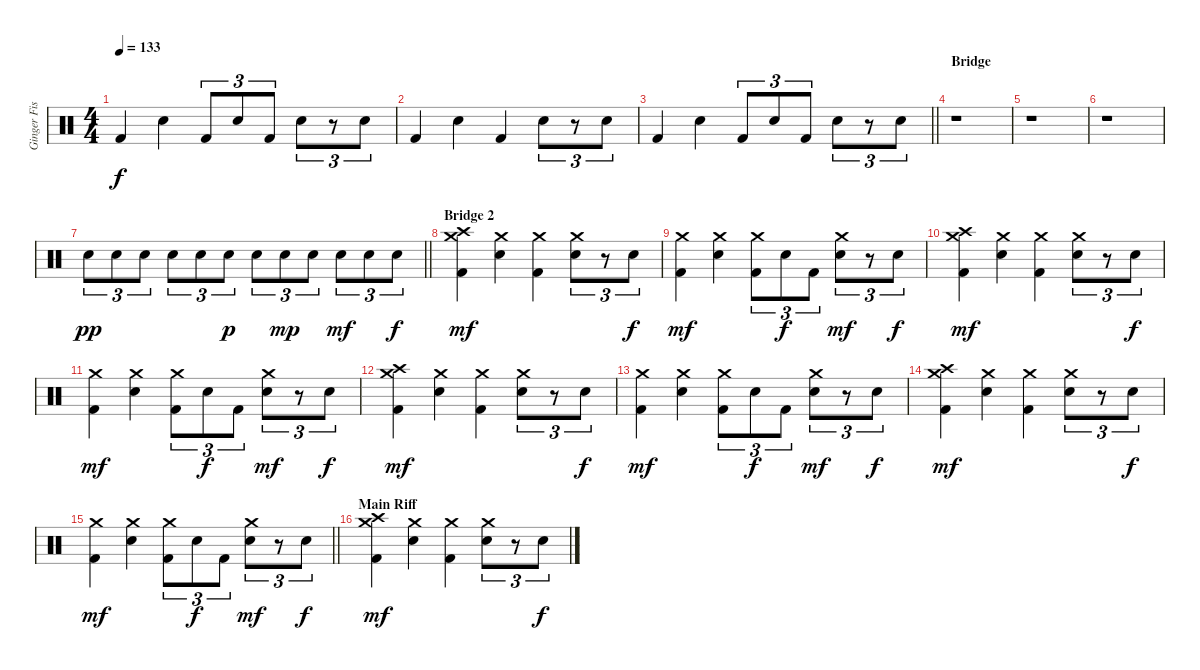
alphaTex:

\track ("Ginger Fish (Drums)" "Ginger Fis") {instrument percussion}
\staff {score}
\articulation defaults
\ts (4 4)
\tempo 133
\clef neutral
\ks c "Kick (hit) 2".4{dy f} "Snare (hit) 2".4 "Kick (hit) 2".8{tu (3 2)} "Snare (hit) 2".8{tu (3 2)} "Kick (hit) 2".8{tu (3 2)} "Snare (hit) 2".8{tu (3 2)}
r.8{tu (3 2)} "Snare (hit) 2".8{tu (3 2)} |
"Kick (hit) 2".4 "Snare (hit) 2".4 "Kick (hit) 2".4 "Snare (hit) 2".8{tu (3 2)} r.8{tu (3 2)} "Snare (hit) 2".8{tu (3 2)} |
\barLineRight lightlight "Kick (hit) 2".4 "Snare (hit) 2".4 "Kick (hit) 2".8{tu (3 2)} "Snare (hit) 2".8{tu (3 2)} "Kick (hit) 2".8{tu (3 2)} "Snare (hit) 2".8{tu (3 2)}
r.8{tu (3 2)} "Snare (hit) 2".8{tu (3 2)} |
\section ("" "Bridge ")
r.1 |
r.1 |
r.1 |
\barLineRight lightlight "Snare (hit) 2".8{tu (3 2) dy pp} "Snare (hit) 2".8{tu (3 2)} "Snare (hit) 2".8{tu (3 2)} "Snare (hit) 2".8{tu (3 2)} "Snare (hit) 2".8{tu (3 2)} "Snare (hit) 2".8{tu (3 2) dy p} "Snare (hit) 2".8{tu (3 2)} "Snare (hit) 2".8{tu (3 2) dy mp} "Snare (hit) 2".8{tu (3 2)} "Snare (hit) 2".8{tu (3 2) dy mf} "Snare (hit) 2".8{tu (3 2)} "Snare (hit) 2".8{tu (3 2) dy f}
|
\section ("" "Bridge 2")
("Crash high (hit)" "Crash medium (hit)" "Kick (hit) 2").4{dy mf} ("Crash medium (hit)" "Snare (hit) 2").4 ("Crash medium (hit)" "Kick (hit) 2").4 ("Crash medium (hit)" "Snare (hit) 2").8{tu (3 2)} r.8{tu (3 2)} "Snare (hit) 2".8{tu (3 2) dy f} |
("Crash medium (hit)" "Kick (hit) 2").4{dy mf} ("Crash medium (hit)" "Snare (hit) 2").4 ("Crash medium (hit)" "Kick (hit) 2").8{tu (3 2)} "Snare (hit) 2".8{tu (3 2) dy f} "Kick (hit) 2".8{tu (3 2)} ("Crash medium (hit)" "Snare (hit) 2").8{tu (3 2) dy mf} r.8{tu (3 2)} "Snare (hit) 2".8{tu (3 2) dy f} |
("Crash high (hit)" "Crash medium (hit)" "Kick (hit) 2").4{dy mf} ("Crash medium (hit)" "Snare (hit) 2").4 ("Crash medium (hit)" "Kick (hit) 2").4 ("Crash medium (hit)" "Snare (hit) 2").8{tu (3 2)} r.8{tu (3 2)} "Snare (hit) 2".8{tu (3 2) dy f} |
("Crash medium (hit)" "Kick (hit) 2").4{dy mf} ("Crash medium (hit)" "Snare (hit) 2").4 ("Crash medium (hit)" "Kick (hit) 2").8{tu (3 2)} "Snare (hit) 2".8{tu (3 2) dy f} "Kick (hit) 2".8{tu (3 2)} ("Crash medium (hit)" "Snare (hit) 2").8{tu (3 2) dy mf} r.8{tu (3 2)} "Snare (hit) 2".8{tu (3 2) dy f} |
("Crash high (hit)" "Crash medium (hit)" "Kick (hit) 2").4{dy mf} ("Crash medium (hit)" "Snare (hit) 2").4 ("Crash medium (hit)" "Kick (hit) 2").4 ("Crash medium (hit)" "Snare (hit) 2").8{tu (3 2)} r.8{tu (3 2)} "Snare (hit) 2".8{tu (3 2) dy f} |
("Crash medium (hit)" "Kick (hit) 2").4{dy mf} ("Crash medium (hit)" "Snare (hit) 2").4 ("Crash medium (hit)" "Kick (hit) 2").8{tu (3 2)} "Snare (hit) 2".8{tu (3 2) dy f} "Kick (hit) 2".8{tu (3 2)} ("Crash medium (hit)" "Snare (hit) 2").8{tu (3 2) dy mf} r.8{tu (3 2)} "Snare (hit) 2".8{tu (3 2) dy f} |
("Crash high (hit)" "Crash medium (hit)" "Kick (hit) 2").4{dy mf} ("Crash medium (hit)" "Snare (hit) 2").4 ("Crash medium (hit)" "Kick (hit) 2").4 ("Crash medium (hit)" "Snare (hit) 2").8{tu (3 2)} r.8{tu (3 2)} "Snare (hit) 2".8{tu (3 2) dy f} |
\barLineRight lightlight
("Crash medium (hit)" "Kick (hit) 2").4{dy mf} ("Crash medium (hit)" "Snare (hit) 2").4 ("Crash medium (hit)" "Kick (hit) 2").8{tu (3 2)} "Snare (hit) 2".8{tu (3 2) dy f} "Kick (hit) 2".8{tu (3 2)} ("Crash medium (hit)" "Snare (hit) 2").8{tu (3 2) dy mf} r.8{tu (3 2)} "Snare (hit) 2".8{tu (3 2) dy f} |
\section ("" "Main Riff")
("Crash high (hit)" "Crash medium (hit)" "Kick (hit) 2").4{dy mf} ("Crash medium (hit)" "Snare (hit) 2").4 ("Crash medium (hit)" "Kick (hit) 2").4 ("Crash medium (hit)" "Snare (hit) 2").8{tu (3 2)} r.8{tu (3 2)} "Snare (hit) 2".8{tu (3 2) dy f}
